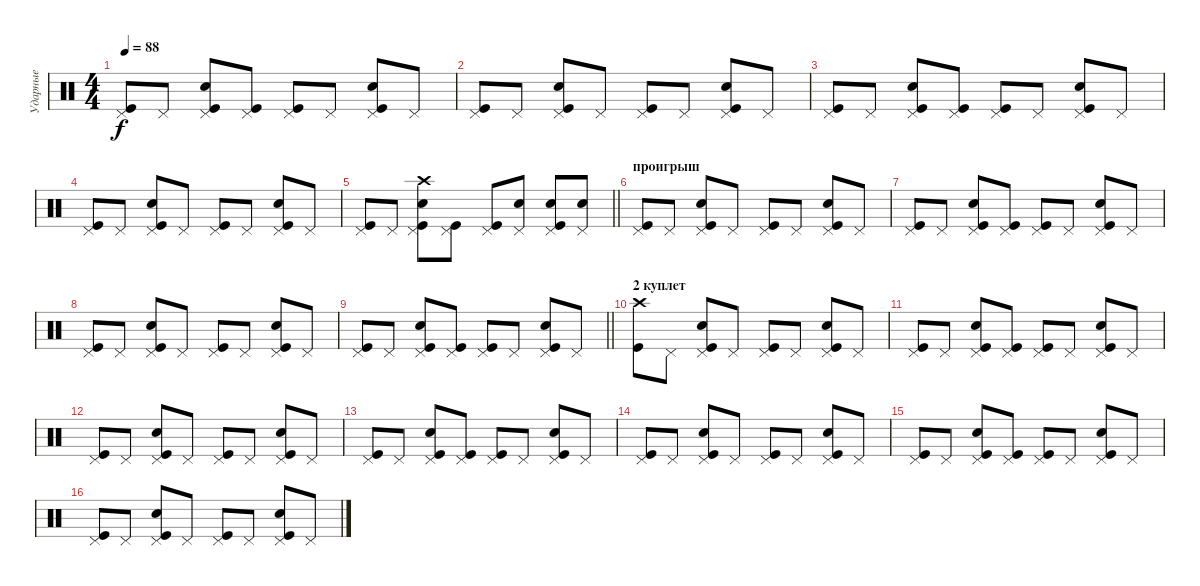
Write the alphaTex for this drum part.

\track ("Ударные" "Ударные") {instrument percussion}
\staff {score}
\articulation defaults
\ts (4 4)
\tempo 88
\clef neutral
\ks c
("Pedal Hi-Hat (hit)" "Kick (hit)").8{dy f} "Pedal Hi-Hat (hit)".8 ("Pedal Hi-Hat (hit)" "Kick (hit)" "Snare (hit) 2").8 ("Pedal Hi-Hat (hit)" "Kick (hit)").8 ("Pedal Hi-Hat (hit)" "Kick (hit)").8 "Pedal Hi-Hat (hit)".8 ("Pedal Hi-Hat (hit)" "Kick (hit)" "Snare (hit) 2").8 "Pedal Hi-Hat (hit)".8 |
("Pedal Hi-Hat (hit)" "Kick (hit)").8 "Pedal Hi-Hat (hit)".8 ("Pedal Hi-Hat (hit)" "Kick (hit)" "Snare (hit) 2").8 "Pedal Hi-Hat (hit)".8 ("Pedal Hi-Hat (hit)" "Kick (hit)").8 "Pedal Hi-Hat (hit)".8 ("Pedal Hi-Hat (hit)" "Kick (hit)" "Snare (hit) 2").8 "Pedal Hi-Hat (hit)".8 |
("Pedal Hi-Hat (hit)" "Kick (hit)").8 "Pedal Hi-Hat (hit)".8 ("Pedal Hi-Hat (hit)" "Kick (hit)" "Snare (hit) 2").8 ("Pedal Hi-Hat (hit)" "Kick (hit)").8 ("Pedal Hi-Hat (hit)" "Kick (hit)").8 "Pedal Hi-Hat (hit)".8 ("Pedal Hi-Hat (hit)" "Kick (hit)" "Snare (hit) 2").8 "Pedal Hi-Hat (hit)".8 |
("Pedal Hi-Hat (hit)" "Kick (hit)").8 "Pedal Hi-Hat (hit)".8 ("Pedal Hi-Hat (hit)" "Kick (hit)" "Snare (hit) 2").8 "Pedal Hi-Hat (hit)".8 ("Pedal Hi-Hat (hit)" "Kick (hit)").8 "Pedal Hi-Hat (hit)".8 ("Pedal Hi-Hat (hit)" "Kick (hit)" "Snare (hit) 2").8 "Pedal Hi-Hat (hit)".8 |
\barLineRight lightlight
("Pedal Hi-Hat (hit)" "Kick (hit)").8 "Pedal Hi-Hat (hit)".8 ("Pedal Hi-Hat (hit)" "Kick (hit)" "Snare (hit) 2" "Crash high (hit)").8 ("Pedal Hi-Hat (hit)" "Kick (hit)").8 ("Pedal Hi-Hat (hit)" "Kick (hit)").8 ("Pedal Hi-Hat (hit)" "Snare (hit) 2").8 ("Pedal Hi-Hat (hit)" "Kick (hit)" "Snare (hit) 2").8 ("Pedal Hi-Hat (hit)" "Snare (hit) 2").8 |
\section ("" "проигрыш")
("Pedal Hi-Hat (hit)" "Kick (hit)").8 "Pedal Hi-Hat (hit)".8 ("Pedal Hi-Hat (hit)" "Kick (hit)" "Snare (hit) 2").8 "Pedal Hi-Hat (hit)".8 ("Pedal Hi-Hat (hit)" "Kick (hit)").8 "Pedal Hi-Hat (hit)".8 ("Pedal Hi-Hat (hit)" "Kick (hit)" "Snare (hit) 2").8 "Pedal Hi-Hat (hit)".8 |
("Pedal Hi-Hat (hit)" "Kick (hit)").8 "Pedal Hi-Hat (hit)".8 ("Pedal Hi-Hat (hit)" "Kick (hit)" "Snare (hit) 2").8 ("Pedal Hi-Hat (hit)" "Kick (hit)").8 ("Pedal Hi-Hat (hit)" "Kick (hit)").8 "Pedal Hi-Hat (hit)".8 ("Pedal Hi-Hat (hit)" "Kick (hit)" "Snare (hit) 2").8 "Pedal Hi-Hat (hit)".8 |
("Pedal Hi-Hat (hit)" "Kick (hit)").8 "Pedal Hi-Hat (hit)".8 ("Pedal Hi-Hat (hit)" "Kick (hit)" "Snare (hit) 2").8 "Pedal Hi-Hat (hit)".8 ("Pedal Hi-Hat (hit)" "Kick (hit)").8 "Pedal Hi-Hat (hit)".8 ("Pedal Hi-Hat (hit)" "Kick (hit)" "Snare (hit) 2").8 "Pedal Hi-Hat (hit)".8 |
\barLineRight lightlight
("Pedal Hi-Hat (hit)" "Kick (hit)").8 "Pedal Hi-Hat (hit)".8 ("Pedal Hi-Hat (hit)" "Kick (hit)" "Snare (hit) 2").8 ("Pedal Hi-Hat (hit)" "Kick (hit)").8 ("Pedal Hi-Hat (hit)" "Kick (hit)").8 "Pedal Hi-Hat (hit)".8 ("Pedal Hi-Hat (hit)" "Kick (hit)" "Snare (hit) 2").8 "Pedal Hi-Hat (hit)".8 |
\section ("" "2 куплет")
("Crash high (hit)" "Kick (hit)").8 "Pedal Hi-Hat (hit)".8 ("Pedal Hi-Hat (hit)" "Kick (hit)" "Snare (hit) 2").8 "Pedal Hi-Hat (hit)".8 ("Pedal Hi-Hat (hit)" "Kick (hit)").8 "Pedal Hi-Hat (hit)".8 ("Pedal Hi-Hat (hit)" "Kick (hit)" "Snare (hit) 2").8 "Pedal Hi-Hat (hit)".8 |
("Pedal Hi-Hat (hit)" "Kick (hit)").8 "Pedal Hi-Hat (hit)".8 ("Pedal Hi-Hat (hit)" "Kick (hit)" "Snare (hit) 2").8 ("Pedal Hi-Hat (hit)" "Kick (hit)").8 ("Pedal Hi-Hat (hit)" "Kick (hit)").8 "Pedal Hi-Hat (hit)".8 ("Pedal Hi-Hat (hit)" "Kick (hit)" "Snare (hit) 2").8 "Pedal Hi-Hat (hit)".8 |
("Pedal Hi-Hat (hit)" "Kick (hit)").8 "Pedal Hi-Hat (hit)".8 ("Pedal Hi-Hat (hit)" "Kick (hit)" "Snare (hit) 2").8 "Pedal Hi-Hat (hit)".8 ("Pedal Hi-Hat (hit)" "Kick (hit)").8 "Pedal Hi-Hat (hit)".8 ("Pedal Hi-Hat (hit)" "Kick (hit)" "Snare (hit) 2").8 "Pedal Hi-Hat (hit)".8 |
("Pedal Hi-Hat (hit)" "Kick (hit)").8 "Pedal Hi-Hat (hit)".8 ("Pedal Hi-Hat (hit)" "Kick (hit)" "Snare (hit) 2").8 ("Pedal Hi-Hat (hit)" "Kick (hit)").8 ("Pedal Hi-Hat (hit)" "Kick (hit)").8 "Pedal Hi-Hat (hit)".8 ("Pedal Hi-Hat (hit)" "Kick (hit)" "Snare (hit) 2").8 "Pedal Hi-Hat (hit)".8 |
("Pedal Hi-Hat (hit)" "Kick (hit)").8 "Pedal Hi-Hat (hit)".8 ("Pedal Hi-Hat (hit)" "Kick (hit)" "Snare (hit) 2").8 "Pedal Hi-Hat (hit)".8 ("Pedal Hi-Hat (hit)" "Kick (hit)").8 "Pedal Hi-Hat (hit)".8 ("Pedal Hi-Hat (hit)" "Kick (hit)" "Snare (hit) 2").8 "Pedal Hi-Hat (hit)".8 |
("Pedal Hi-Hat (hit)" "Kick (hit)").8 "Pedal Hi-Hat (hit)".8 ("Pedal Hi-Hat (hit)" "Kick (hit)" "Snare (hit) 2").8 ("Pedal Hi-Hat (hit)" "Kick (hit)").8 ("Pedal Hi-Hat (hit)" "Kick (hit)").8 "Pedal Hi-Hat (hit)".8 ("Pedal Hi-Hat (hit)" "Kick (hit)" "Snare (hit) 2").8 "Pedal Hi-Hat (hit)".8 |
("Pedal Hi-Hat (hit)" "Kick (hit)").8 "Pedal Hi-Hat (hit)".8 ("Pedal Hi-Hat (hit)" "Kick (hit)" "Snare (hit) 2").8 "Pedal Hi-Hat (hit)".8 ("Pedal Hi-Hat (hit)" "Kick (hit)").8 "Pedal Hi-Hat (hit)".8 ("Pedal Hi-Hat (hit)" "Kick (hit)" "Snare (hit) 2").8 "Pedal Hi-Hat (hit)".8
